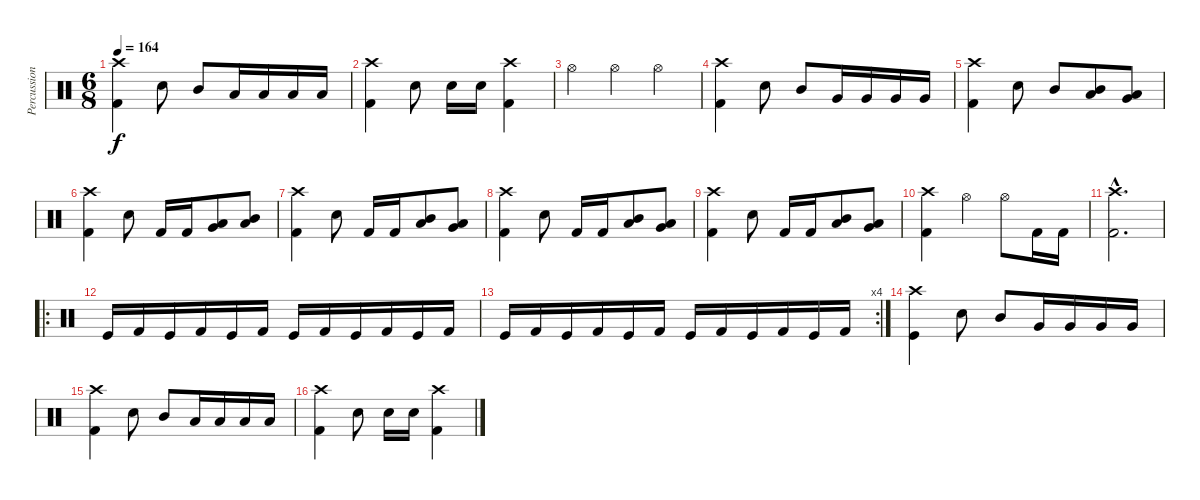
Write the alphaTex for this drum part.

\track ("Percussion" "Percussion") {instrument percussion}
\staff {score}
\articulation defaults
\ts (6 8)
\tempo 164
\clef neutral
\ks c
("Crash high (hit)" "Kick (hit) 2").4{dy f} "Snare (hit) 2".8 "Mid Tom (hit)".8 "Low Tom (hit)".16 "Low Tom (hit)".16 "Low Tom (hit)".16 "Low Tom (hit)".16 |
("Crash high (hit)" "Kick (hit) 2").4 "Snare (hit) 2".8 "Snare (hit) 2".16 "Snare (hit) 2".16 ("Crash high (hit)" "Kick (hit) 2").4 |
"Hi-Hat (open)".4 "Hi-Hat (open)".4 "Hi-Hat (open)".4 |
("Crash high (hit)" "Kick (hit) 2").4 "Snare (hit) 2".8 "Mid Tom (hit)".8 "Very Low Tom (hit)".16 "Very Low Tom (hit)".16 "Very Low Tom (hit)".16 "Very Low Tom (hit)".16 |
("Crash high (hit)" "Kick (hit) 2").4 "Snare (hit) 2".8 "Mid Tom (hit)".8 ("Mid Tom (hit)" "Low Tom (hit)").8 ("Low Tom (hit)" "Very Low Tom (hit)").8 |
("Crash high (hit)" "Kick (hit) 2").4 "Snare (hit) 2".8 "Kick (hit) 2".16 "Kick (hit) 2".16 ("Low Tom (hit)" "Very Low Tom (hit)").8 ("Mid Tom (hit)" "Low Tom (hit)").8 |
("Crash high (hit)" "Kick (hit) 2").4 "Snare (hit) 2".8 "Kick (hit) 2".16 "Kick (hit) 2".16 ("Mid Tom (hit)" "Low Tom (hit)").8 ("Low Tom (hit)" "Very Low Tom (hit)").8 |
("Crash high (hit)" "Kick (hit) 2").4 "Snare (hit) 2".8 "Kick (hit) 2".16 "Kick (hit) 2".16 ("Mid Tom (hit)" "Low Tom (hit)").8 ("Low Tom (hit)" "Very Low Tom (hit)").8 |
("Crash high (hit)" "Kick (hit) 2").4 "Snare (hit) 2".8 "Kick (hit) 2".16 "Kick (hit) 2".16 ("Mid Tom (hit)" "Low Tom (hit)").8 ("Low Tom (hit)" "Very Low Tom (hit)").8 |
("Crash high (hit)" "Kick (hit) 2").4 "Hi-Hat (open)".4 "Hi-Hat (open)".8 "Kick (hit) 2".16 "Kick (hit) 2".16 |
("Crash high (hit)"{hac} "Kick (hit) 2"{hac}).2{d} |
\ro "Kick (hit)".16 "Kick (hit) 2".16 "Kick (hit)".16 "Kick (hit) 2".16 "Kick (hit)".16 "Kick (hit) 2".16 "Kick (hit)".16 "Kick (hit) 2".16 "Kick (hit)".16 "Kick (hit) 2".16 "Kick (hit)".16 "Kick (hit) 2".16
|
\rc 4 "Kick (hit)".16 "Kick (hit) 2".16 "Kick (hit)".16 "Kick (hit) 2".16 "Kick (hit)".16 "Kick (hit) 2".16 "Kick (hit)".16 "Kick (hit) 2".16 "Kick (hit)".16 "Kick (hit) 2".16 "Kick (hit)".16 "Kick (hit) 2".16
|
("Crash high (hit)" "Kick (hit)").4 "Snare (hit) 2".8 "Mid Tom (hit)".8 "Very Low Tom (hit)".16 "Very Low Tom (hit)".16 "Very Low Tom (hit)".16 "Very Low Tom (hit)".16 |
("Crash high (hit)" "Kick (hit) 2").4 "Snare (hit) 2".8 "Mid Tom (hit)".8 "Low Tom (hit)".16 "Low Tom (hit)".16 "Low Tom (hit)".16 "Low Tom (hit)".16 |
("Crash high (hit)" "Kick (hit) 2").4 "Snare (hit) 2".8 "Snare (hit) 2".16 "Snare (hit) 2".16 ("Crash high (hit)" "Kick (hit) 2").4
